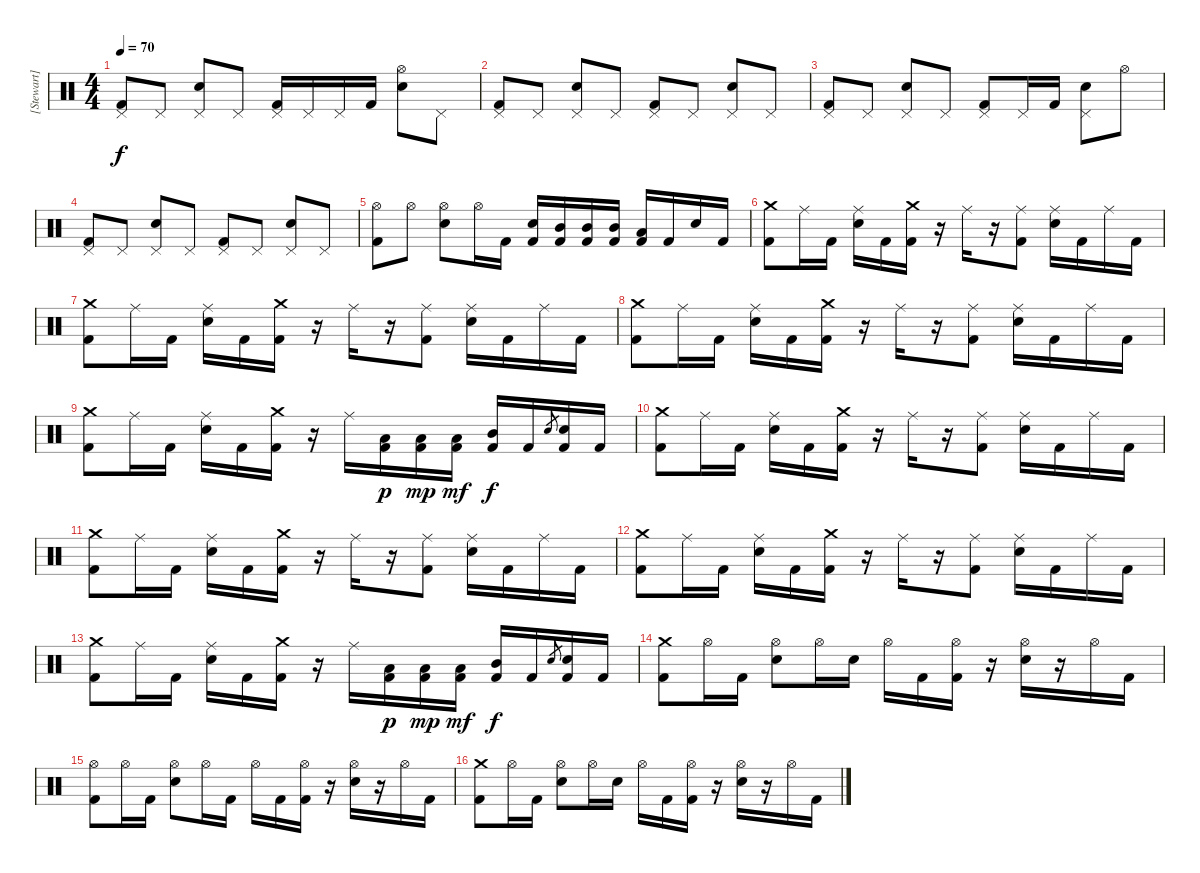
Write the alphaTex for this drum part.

\track ("[Stewart]" "[Stewart]") {instrument percussion}
\staff {score}
\articulation defaults
\ts (4 4)
\tempo 70
\clef neutral
\ks c
("Kick (hit) 2" "Pedal Hi-Hat (hit)").8{dy f} "Pedal Hi-Hat (hit)".8 ("Electric Snare (hit)" "Pedal Hi-Hat (hit)").8 "Pedal Hi-Hat (hit)".8 ("Kick (hit) 2" "Pedal Hi-Hat (hit)").16 "Pedal Hi-Hat (hit)".16 "Pedal Hi-Hat (hit)".16 "Kick (hit) 2".16 ("Electric Snare (hit)" "Hi-Hat (open)").8 "Pedal Hi-Hat (hit)".8 |
("Kick (hit) 2" "Pedal Hi-Hat (hit)").8 "Pedal Hi-Hat (hit)".8 ("Electric Snare (hit)" "Pedal Hi-Hat (hit)").8 "Pedal Hi-Hat (hit)".8 ("Kick (hit) 2" "Pedal Hi-Hat (hit)").8 "Pedal Hi-Hat (hit)".8 ("Electric Snare (hit)" "Pedal Hi-Hat (hit)").8 "Pedal Hi-Hat (hit)".8 |
("Kick (hit) 2" "Pedal Hi-Hat (hit)").8 "Pedal Hi-Hat (hit)".8 ("Electric Snare (hit)" "Pedal Hi-Hat (hit)").8 "Pedal Hi-Hat (hit)".8 ("Kick (hit) 2" "Pedal Hi-Hat (hit)").8 "Pedal Hi-Hat (hit)".16 "Kick (hit) 2".16 ("Electric Snare (hit)" "Pedal Hi-Hat (hit)").8 "Hi-Hat (open)".8 |
("Kick (hit) 2" "Pedal Hi-Hat (hit)").8 "Pedal Hi-Hat (hit)".8 ("Electric Snare (hit)" "Pedal Hi-Hat (hit)").8 "Pedal Hi-Hat (hit)".8 ("Kick (hit) 2" "Pedal Hi-Hat (hit)").8 "Pedal Hi-Hat (hit)".8 ("Electric Snare (hit)" "Pedal Hi-Hat (hit)").8 "Pedal Hi-Hat (hit)".8 |
("Kick (hit) 2" "Hi-Hat (open)").8 "Hi-Hat (open)".8 ("Electric Snare (hit)" "Hi-Hat (open)").8 "Hi-Hat (open)".16 "Kick (hit) 2".16 ("Kick (hit) 2" "Electric Snare (hit)").16 ("Kick (hit) 2" "Mid Tom (hit)").16 ("Kick (hit) 2" "Mid Tom (hit)").16 ("Kick (hit) 2" "Mid Tom (hit)").16 ("Kick (hit) 2" "Low Tom (hit)").16 "Kick (hit) 2".16 "Electric Snare (hit)".16 "Kick (hit) 2".16 |
("Kick (hit) 2" "Crash medium (hit)").8 "Ride (middle)".16 "Kick (hit) 2".16 ("Electric Snare (hit)" "Ride (middle)").16 "Kick (hit) 2".16 ("Kick (hit) 2" "Crash medium (hit)").16 r.16 "Ride (middle)".16 r.16 ("Kick (hit) 2" "Ride (middle)").8 ("Electric Snare (hit)" "Ride (middle)").16 "Kick (hit) 2".16 "Ride (middle)".16 "Kick (hit) 2".16 |
("Kick (hit) 2" "Crash medium (hit)").8 "Ride (middle)".16 "Kick (hit) 2".16 ("Electric Snare (hit)" "Ride (middle)").16 "Kick (hit) 2".16 ("Kick (hit) 2" "Crash medium (hit)").16 r.16 "Ride (middle)".16 r.16 ("Kick (hit) 2" "Ride (middle)").8 ("Electric Snare (hit)" "Ride (middle)").16 "Kick (hit) 2".16 "Ride (middle)".16 "Kick (hit) 2".16 |
("Kick (hit) 2" "Crash medium (hit)").8 "Ride (middle)".16 "Kick (hit) 2".16 ("Electric Snare (hit)" "Ride (middle)").16 "Kick (hit) 2".16 ("Kick (hit) 2" "Crash medium (hit)").16 r.16 "Ride (middle)".16 r.16 ("Kick (hit) 2" "Ride (middle)").8 ("Electric Snare (hit)" "Ride (middle)").16 "Kick (hit) 2".16 "Ride (middle)".16 "Kick (hit) 2".16 |
("Kick (hit) 2" "Crash medium (hit)").8 "Ride (middle)".16 "Kick (hit) 2".16 ("Electric Snare (hit)" "Ride (middle)").16 "Kick (hit) 2".16 ("Kick (hit) 2" "Crash medium (hit)").16 r.16 "Ride (middle)".16 ("Kick (hit) 2" "Low Tom (hit)").16{dy p} ("Kick (hit) 2" "Low Tom (hit)").16{dy mp} ("Kick (hit) 2" "Low Tom (hit)").16{dy mf} ("Kick (hit) 2" "Mid Tom (hit)").16{dy f} "Kick (hit) 2".16 "Electric Snare (hit)".8{gr} ("Kick (hit) 2" "Electric Snare (hit)").16 "Kick (hit) 2".16 |
("Kick (hit) 2" "Crash medium (hit)").8 "Ride (middle)".16 "Kick (hit) 2".16 ("Electric Snare (hit)" "Ride (middle)").16 "Kick (hit) 2".16 ("Kick (hit) 2" "Crash medium (hit)").16 r.16 "Ride (middle)".16 r.16 ("Kick (hit) 2" "Ride (middle)").8 ("Electric Snare (hit)" "Ride (middle)").16 "Kick (hit) 2".16 "Ride (middle)".16 "Kick (hit) 2".16 |
("Kick (hit) 2" "Crash medium (hit)").8 "Ride (middle)".16 "Kick (hit) 2".16 ("Electric Snare (hit)" "Ride (middle)").16 "Kick (hit) 2".16 ("Kick (hit) 2" "Crash medium (hit)").16 r.16 "Ride (middle)".16 r.16 ("Kick (hit) 2" "Ride (middle)").8 ("Electric Snare (hit)" "Ride (middle)").16 "Kick (hit) 2".16 "Ride (middle)".16 "Kick (hit) 2".16 |
("Kick (hit) 2" "Crash medium (hit)").8 "Ride (middle)".16 "Kick (hit) 2".16 ("Electric Snare (hit)" "Ride (middle)").16 "Kick (hit) 2".16 ("Kick (hit) 2" "Crash medium (hit)").16 r.16 "Ride (middle)".16 r.16 ("Kick (hit) 2" "Ride (middle)").8 ("Electric Snare (hit)" "Ride (middle)").16 "Kick (hit) 2".16 "Ride (middle)".16 "Kick (hit) 2".16 |
("Kick (hit) 2" "Crash medium (hit)").8 "Ride (middle)".16 "Kick (hit) 2".16 ("Electric Snare (hit)" "Ride (middle)").16 "Kick (hit) 2".16 ("Kick (hit) 2" "Crash medium (hit)").16 r.16 "Ride (middle)".16 ("Kick (hit) 2" "Low Tom (hit)").16{dy p} ("Kick (hit) 2" "Low Tom (hit)").16{dy mp} ("Kick (hit) 2" "Low Tom (hit)").16{dy mf} ("Kick (hit) 2" "Mid Tom (hit)").16{dy f} "Kick (hit) 2".16 "Electric Snare (hit)".8{gr} ("Kick (hit) 2" "Electric Snare (hit)").16 "Kick (hit) 2".16 |
("Kick (hit) 2" "Crash medium (hit)").8 "Hi-Hat (open)".16 "Kick (hit) 2".16 ("Electric Snare (hit)" "Hi-Hat (open)").8 "Hi-Hat (open)".16 "Electric Snare (hit)".16 "Hi-Hat (open)".16 "Kick (hit) 2".16 ("Kick (hit) 2" "Hi-Hat (open)").16 r.16 ("Electric Snare (hit)" "Hi-Hat (open)").16 r.16 "Hi-Hat (open)".16 "Kick (hit) 2".16 |
("Kick (hit) 2" "Hi-Hat (open)").8 "Hi-Hat (open)".16 "Kick (hit) 2".16 ("Electric Snare (hit)" "Hi-Hat (open)").8 "Hi-Hat (open)".16 "Kick (hit) 2".16 "Hi-Hat (open)".16 "Kick (hit) 2".16 ("Kick (hit) 2" "Hi-Hat (open)").16 r.16 ("Electric Snare (hit)" "Hi-Hat (open)").16 r.16 "Hi-Hat (open)".16 "Kick (hit) 2".16 |
("Kick (hit) 2" "Crash medium (hit)").8 "Hi-Hat (open)".16 "Kick (hit) 2".16 ("Electric Snare (hit)" "Hi-Hat (open)").8 "Hi-Hat (open)".16 "Electric Snare (hit)".16 "Hi-Hat (open)".16 "Kick (hit) 2".16 ("Kick (hit) 2" "Hi-Hat (open)").16 r.16 ("Electric Snare (hit)" "Hi-Hat (open)").16 r.16 "Hi-Hat (open)".16 "Kick (hit) 2".16
